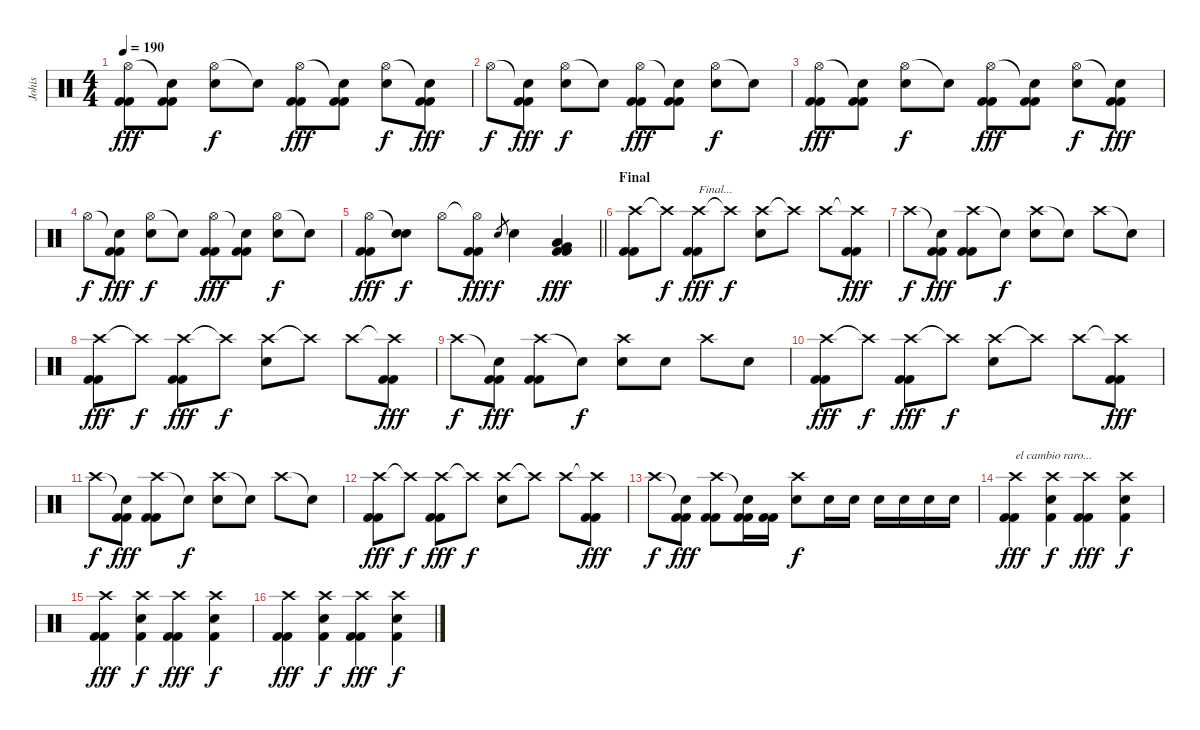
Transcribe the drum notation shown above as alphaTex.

\track ("Johis" "Johis") {instrument percussion}
\staff {score}
\articulation defaults
\ts (4 4)
\tempo 190
\clef neutral
\ks c
("Hi-Hat (open)" "Kick (hit) 2" "Kick (hit) 2").8{dy fff} ("Snare (hit)"{t} "Kick (hit) 2" "Kick (hit) 2").8 ("Hi-Hat (open)" "Electric Snare (hit)").8{dy f} "Snare (hit)"{t}.8 ("Hi-Hat (open)" "Kick (hit) 2" "Kick (hit) 2").8{dy fff} ("Snare (hit)"{t} "Kick (hit) 2" "Kick (hit) 2").8 ("Hi-Hat (open)" "Electric Snare (hit)").8{dy f} ("Snare (hit)"{t} "Kick (hit) 2" "Kick (hit) 2").8{dy fff} |
"Hi-Hat (open)".8{dy f} ("Snare (hit)"{t} "Kick (hit) 2" "Kick (hit) 2").8{dy fff} ("Hi-Hat (open)" "Electric Snare (hit)").8{dy f} "Snare (hit)"{t}.8 ("Hi-Hat (open)" "Kick (hit) 2" "Kick (hit) 2").8{dy fff} ("Snare (hit)"{t} "Kick (hit) 2" "Kick (hit) 2").8 ("Hi-Hat (open)" "Electric Snare (hit)").8{dy f} "Snare (hit)"{t}.8 |
("Hi-Hat (open)" "Kick (hit) 2" "Kick (hit) 2").8{dy fff} ("Snare (hit)"{t} "Kick (hit) 2" "Kick (hit) 2").8 ("Hi-Hat (open)" "Electric Snare (hit)").8{dy f} "Snare (hit)"{t}.8 ("Hi-Hat (open)" "Kick (hit) 2" "Kick (hit) 2").8{dy fff} ("Snare (hit)"{t} "Kick (hit) 2" "Kick (hit) 2").8 ("Hi-Hat (open)" "Electric Snare (hit)").8{dy f} ("Snare (hit)"{t} "Kick (hit) 2" "Kick (hit) 2").8{dy fff} |
"Hi-Hat (open)".8{dy f} ("Snare (hit)"{t} "Kick (hit) 2" "Kick (hit) 2").8{dy fff} ("Hi-Hat (open)" "Electric Snare (hit)").8{dy f} "Snare (hit)"{t}.8 ("Hi-Hat (open)" "Kick (hit) 2" "Kick (hit) 2").8{dy fff} ("Snare (hit)"{t} "Kick (hit) 2" "Kick (hit) 2").8 ("Hi-Hat (open)" "Electric Snare (hit)").8{dy f} "Snare (hit)"{t}.8 |
\barLineRight lightlight
("Hi-Hat (open)" "Kick (hit) 2" "Kick (hit) 2").8{dy fff} ("Snare (hit)"{t} "Electric Snare (hit)").8{dy f} "Hi-Hat (open)".8 ("Hi-Hat (open)"{t} "Kick (hit) 2" "Kick (hit) 2").8{dy fff} "Electric Snare (hit)".8{gr dy f} "Electric Snare (hit)".4 ("Low Tom (hit)" "Very Low Tom (hit)" "Kick (hit) 2" "Kick (hit) 2").4{bd 120 dy fff} |
\section ("" "Final")
("Crash high (hit)" "Kick (hit) 2" "Kick (hit) 2").8 "Crash high (hit)"{t}.8{dy f} ("Crash high (hit)" "Kick (hit) 2" "Kick (hit) 2").8{txt "Final..." dy fff} "Crash high (hit)"{t}.8{dy f} ("Crash high (hit)" "Electric Snare (hit)").8 "Crash high (hit)"{t}.8 "Crash high (hit)".8 ("Crash high (hit)"{t} "Kick (hit) 2" "Kick (hit) 2").8{dy fff} |
"Crash high (hit)".8{dy f} ("Snare (hit)"{t} "Kick (hit) 2" "Kick (hit) 2").8{dy fff} ("Crash high (hit)" "Kick (hit) 2" "Kick (hit) 2").8 "Snare (hit)"{t}.8{dy f} ("Crash high (hit)" "Electric Snare (hit)").8 "Snare (hit)"{t}.8 "Crash high (hit)".8 "Snare (hit)"{t}.8 |
("Crash high (hit)" "Kick (hit) 2" "Kick (hit) 2").8{dy fff} "Crash high (hit)"{t}.8{dy f} ("Crash high (hit)" "Kick (hit) 2" "Kick (hit) 2").8{dy fff} "Crash high (hit)"{t}.8{dy f} ("Crash high (hit)" "Electric Snare (hit)").8 "Crash high (hit)"{t}.8 "Crash high (hit)".8 ("Crash high (hit)"{t} "Kick (hit) 2" "Kick (hit) 2").8{dy fff} |
"Crash high (hit)".8{dy f} ("Snare (hit)"{t} "Kick (hit) 2" "Kick (hit) 2").8{dy fff} ("Crash high (hit)" "Kick (hit) 2" "Kick (hit) 2").8 "Snare (hit)"{t}.8{dy f} ("Crash high (hit)" "Electric Snare (hit)").8 "Electric Snare (hit)".8 "Crash high (hit)".8 "Electric Snare (hit)".8 |
("Crash high (hit)" "Kick (hit) 2" "Kick (hit) 2").8{dy fff} "Crash high (hit)"{t}.8{dy f} ("Crash high (hit)" "Kick (hit) 2" "Kick (hit) 2").8{dy fff} "Crash high (hit)"{t}.8{dy f} ("Crash high (hit)" "Electric Snare (hit)").8 "Crash high (hit)"{t}.8 "Crash high (hit)".8 ("Crash high (hit)"{t} "Kick (hit) 2" "Kick (hit) 2").8{dy fff} |
"Crash high (hit)".8{dy f} ("Snare (hit)"{t} "Kick (hit) 2" "Kick (hit) 2").8{dy fff} ("Crash high (hit)" "Kick (hit) 2" "Kick (hit) 2").8 "Snare (hit)"{t}.8{dy f} ("Crash high (hit)" "Electric Snare (hit)").8 "Snare (hit)"{t}.8 "Crash high (hit)".8 "Snare (hit)"{t}.8 |
("Crash high (hit)" "Kick (hit) 2" "Kick (hit) 2").8{dy fff} "Crash high (hit)"{t}.8{dy f} ("Crash high (hit)" "Kick (hit) 2" "Kick (hit) 2").8{dy fff} "Crash high (hit)"{t}.8{dy f} ("Crash high (hit)" "Electric Snare (hit)").8 "Crash high (hit)"{t}.8 "Crash high (hit)".8 ("Crash high (hit)"{t} "Kick (hit) 2" "Kick (hit) 2").8{dy fff} |
"Crash high (hit)".8{dy f} ("Snare (hit)"{t} "Kick (hit) 2" "Kick (hit) 2").8{dy fff} ("Crash high (hit)" "Kick (hit) 2" "Kick (hit) 2").8 ("Snare (hit)"{t} "Kick (hit) 2" "Kick (hit) 2").16 ("Kick (hit) 2" "Kick (hit) 2").16 ("Crash high (hit)" "Electric Snare (hit)").8{dy f} "Electric Snare (hit)".16 "Electric Snare (hit)".16 "Electric Snare (hit)".16 "Electric Snare (hit)".16 "Electric Snare (hit)".16 "Electric Snare (hit)".16 |
("Crash high (hit)" "Kick (hit) 2" "Kick (hit) 2").4{txt "el cambio raro..." dy fff} ("Crash high (hit)" "Electric Snare (hit)" "Kick (hit) 2").4{dy f} ("Crash high (hit)" "Kick (hit) 2" "Kick (hit) 2").4{dy fff} ("Crash high (hit)" "Electric Snare (hit)" "Kick (hit) 2").4{dy f} |
("Crash high (hit)" "Kick (hit) 2" "Kick (hit) 2").4{dy fff} ("Crash high (hit)" "Electric Snare (hit)" "Kick (hit) 2").4{dy f} ("Crash high (hit)" "Kick (hit) 2" "Kick (hit) 2").4{dy fff} ("Crash high (hit)" "Electric Snare (hit)" "Kick (hit) 2").4{dy f} |
("Crash high (hit)" "Kick (hit) 2" "Kick (hit) 2").4{dy fff} ("Crash high (hit)" "Electric Snare (hit)" "Kick (hit) 2").4{dy f} ("Crash high (hit)" "Kick (hit) 2" "Kick (hit) 2").4{dy fff} ("Crash high (hit)" "Electric Snare (hit)" "Kick (hit) 2").4{dy f}
